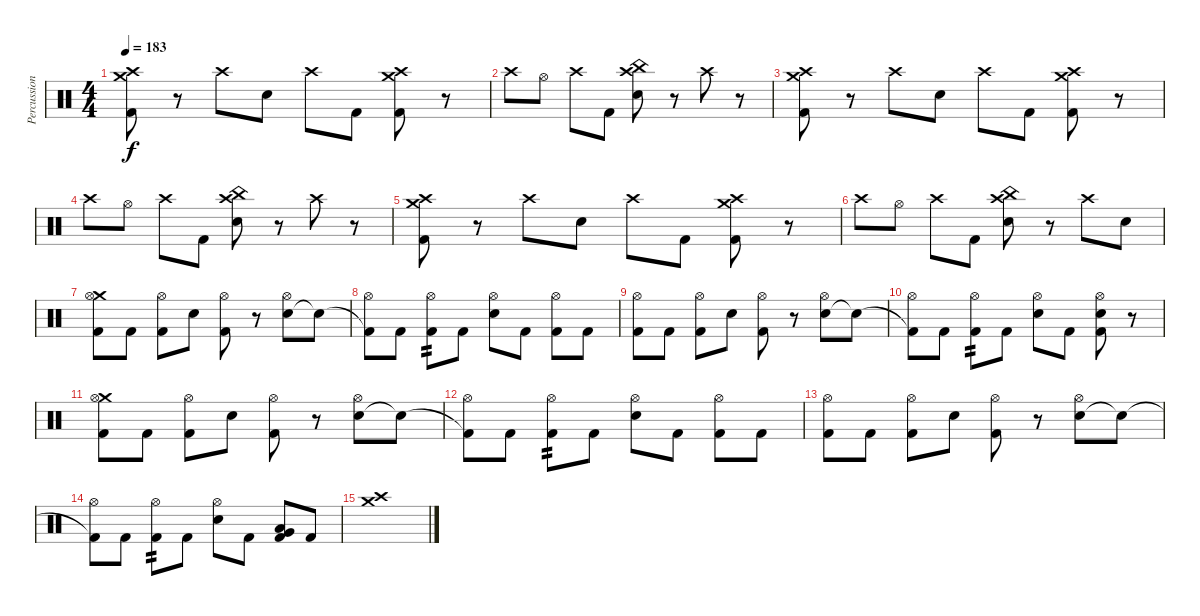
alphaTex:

\track ("Percussion" "Percussion") {instrument percussion}
\staff {score}
\articulation defaults
\ts (4 4)
\tempo 183
\clef neutral
\ks c
("Crash high (hit)" "Crash medium (hit)" "Kick (hit) 2").8{dy f} r.8 "Crash high (hit)".8 "Snare (hit) 2".8 "Crash high (hit)".8 "Kick (hit) 2".8 ("Crash high (hit)" "Crash medium (hit)" "Kick (hit) 2").8 r.8 |
"Crash high (hit)".8 "Hi-Hat (open)".8 "Crash high (hit)".8 "Kick (hit) 2".8 ("Crash high (hit)" "Snare (hit) 2" "China (hit)").8 r.8 "Crash high (hit)".8 r.8 |
("Crash high (hit)" "Crash medium (hit)" "Kick (hit) 2").8 r.8 "Crash high (hit)".8 "Snare (hit) 2".8 "Crash high (hit)".8 "Kick (hit) 2".8 ("Crash high (hit)" "Crash medium (hit)" "Kick (hit) 2").8 r.8 |
"Crash high (hit)".8 "Hi-Hat (open)".8 "Crash high (hit)".8 "Kick (hit) 2".8 ("Crash high (hit)" "Snare (hit) 2" "China (hit)").8 r.8 "Crash high (hit)".8 r.8 |
("Crash high (hit)" "Crash medium (hit)" "Kick (hit) 2").8 r.8 "Crash high (hit)".8 "Snare (hit) 2".8 "Crash high (hit)".8 "Kick (hit) 2".8 ("Crash high (hit)" "Crash medium (hit)" "Kick (hit) 2").8 r.8 |
"Crash high (hit)".8 "Hi-Hat (open)".8 "Crash high (hit)".8 "Kick (hit) 2".8 ("Crash high (hit)" "Snare (hit) 2" "China (hit)").8 r.8 "Crash high (hit)".8 "Snare (hit) 2".8 |
("Kick (hit) 2" "Crash medium (hit)" "Hi-Hat (open)").8 "Kick (hit) 2".8 ("Kick (hit) 2" "Hi-Hat (open)").8 "Snare (hit) 2".8 ("Kick (hit) 2" "Hi-Hat (open)").8 r.8 ("Snare (hit) 2" "Hi-Hat (open)").8 "Snare (hit)"{t}.8 |
("Kick (hit) 2"{t} "Hi-Hat (open)").8 "Kick (hit) 2".8 ("Kick (hit) 2" "Hi-Hat (open)").8{tp 2} "Kick (hit) 2".8 ("Snare (hit) 2" "Hi-Hat (open)").8 "Kick (hit) 2".8 ("Kick (hit) 2" "Hi-Hat (open)").8 "Kick (hit) 2".8 |
("Kick (hit) 2" "Hi-Hat (open)").8 "Kick (hit) 2".8 ("Kick (hit) 2" "Hi-Hat (open)").8 "Snare (hit) 2".8 ("Kick (hit) 2" "Hi-Hat (open)").8 r.8 ("Snare (hit) 2" "Hi-Hat (open)").8 "Snare (hit)"{t}.8 |
("Kick (hit) 2"{t} "Hi-Hat (open)").8 "Kick (hit) 2".8 ("Kick (hit) 2" "Hi-Hat (open)").8{tp 2} "Kick (hit) 2".8 ("Snare (hit) 2" "Hi-Hat (open)").8 "Kick (hit) 2".8 ("Kick (hit) 2" "Snare (hit) 2" "Hi-Hat (open)").8 r.8 |
("Kick (hit) 2" "Crash medium (hit)" "Hi-Hat (open)").8 "Kick (hit) 2".8 ("Kick (hit) 2" "Hi-Hat (open)").8 "Snare (hit) 2".8 ("Kick (hit) 2" "Hi-Hat (open)").8 r.8 ("Snare (hit) 2" "Hi-Hat (open)").8 "Snare (hit)"{t}.8 |
("Kick (hit) 2"{t} "Hi-Hat (open)").8 "Kick (hit) 2".8 ("Kick (hit) 2" "Hi-Hat (open)").8{tp 2} "Kick (hit) 2".8 ("Snare (hit) 2" "Hi-Hat (open)").8 "Kick (hit) 2".8 ("Kick (hit) 2" "Hi-Hat (open)").8 "Kick (hit) 2".8 |
("Kick (hit) 2" "Hi-Hat (open)").8 "Kick (hit) 2".8 ("Kick (hit) 2" "Hi-Hat (open)").8 "Snare (hit) 2".8 ("Kick (hit) 2" "Hi-Hat (open)").8 r.8 ("Snare (hit) 2" "Hi-Hat (open)").8 "Snare (hit)"{t}.8 |
("Kick (hit) 2"{t} "Hi-Hat (open)").8 "Kick (hit) 2".8 ("Kick (hit) 2" "Hi-Hat (open)").8{tp 2} "Kick (hit) 2".8 ("Snare (hit) 2" "Hi-Hat (open)").8 "Kick (hit) 2".8 ("Kick (hit) 2" "Low Floor Tom (hit)" "Very Low Tom (hit)").8 "Kick (hit) 2".8 |
("Crash medium (hit)" "Crash high (hit)").1
